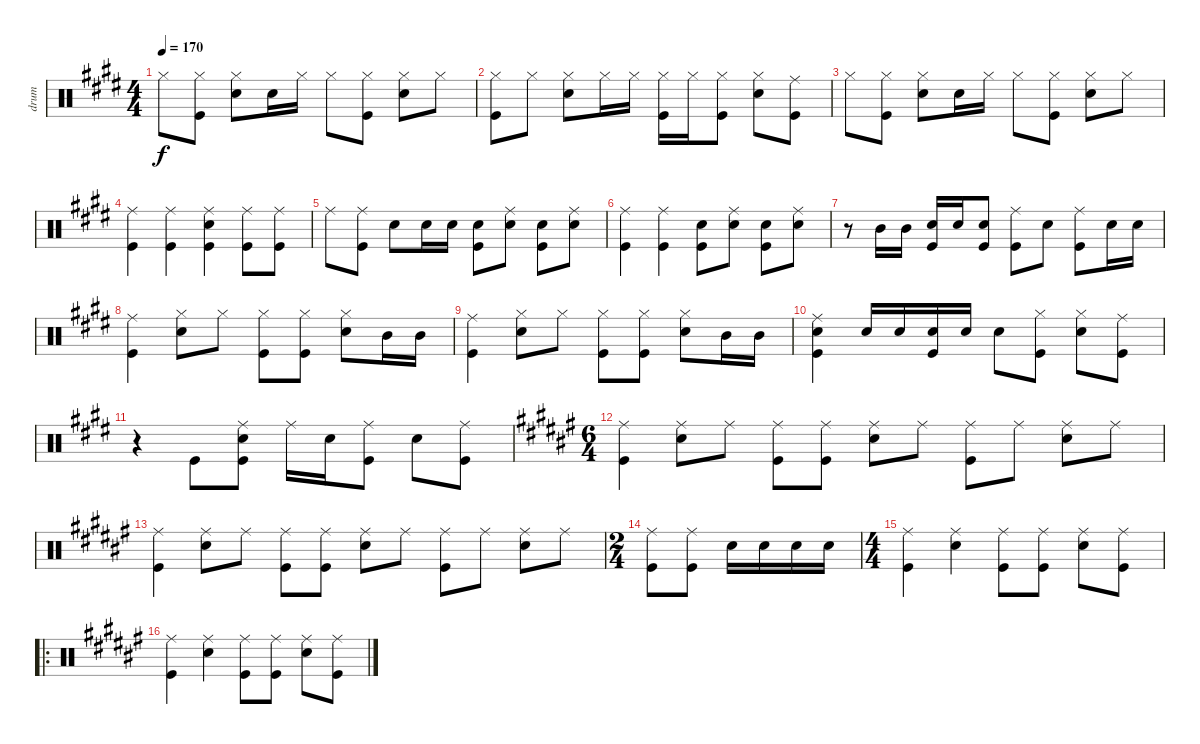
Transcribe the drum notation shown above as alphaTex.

\track ("drum" "drum") {instrument percussion}
\staff {score}
\articulation defaults
\ts (4 4)
\tempo 170
\clef neutral
\ks e "Hi-Hat (closed)".8{dy f}
("Kick (hit)" "Hi-Hat (closed)").8 ("Hi-Hat (closed)" "Snare (hit) 2").8 "Snare (hit) 2".16 "Hi-Hat (closed)".16 "Hi-Hat (closed)".8 ("Hi-Hat (closed)" "Kick (hit)").8 ("Hi-Hat (closed)" "Snare (hit) 2").8 "Hi-Hat (closed)".8 |
("Kick (hit)" "Hi-Hat (closed)").8 "Hi-Hat (closed)".8 ("Hi-Hat (closed)" "Snare (hit) 2").8 "Hi-Hat (closed)".16 "Hi-Hat (closed)".16 ("Hi-Hat (closed)" "Kick (hit)").16 "Hi-Hat (closed)".16 ("Kick (hit)" "Hi-Hat (closed)").8 ("Hi-Hat (closed)" "Snare (hit) 2").8 ("Kick (hit)" "Ride (middle)").8 |
"Hi-Hat (closed)".8 ("Kick (hit)" "Hi-Hat (closed)").8 ("Hi-Hat (closed)" "Snare (hit) 2").8 "Snare (hit) 2".16 "Hi-Hat (closed)".16 "Hi-Hat (closed)".8 ("Hi-Hat (closed)" "Kick (hit)").8 ("Hi-Hat (closed)" "Snare (hit) 2").8 "Hi-Hat (closed)".8 |
("Kick (hit)" "Ride (middle)").4 ("Kick (hit)" "Ride (middle)").4 ("Snare (hit) 2" "Kick (hit)" "Ride (middle)").4 ("Ride (middle)" "Kick (hit)").8 ("Ride (middle)" "Kick (hit)").8 |
"Ride (middle)".8 ("Kick (hit)" "Ride (middle)").8 "Snare (hit) 2".8 "Snare (hit) 2".16 "Snare (hit) 2".16 ("Kick (hit)" "Snare (hit) 2").8 ("Ride (middle)" "Snare (hit) 2").8 ("Kick (hit)" "Snare (hit) 2").8 ("Ride (middle)" "Snare (hit) 2").8 |
("Kick (hit)" "Ride (middle)").4 ("Kick (hit)" "Ride (middle)").4 ("Kick (hit)" "Snare (hit) 2").8 ("Ride (middle)" "Snare (hit) 2").8 ("Kick (hit)" "Snare (hit) 2").8 ("Ride (middle)" "Snare (hit) 2").8 |
r.8 "Mid Tom (hit)".16 "Mid Tom (hit)".16 ("Snare (hit) 2" "Kick (hit)").16 "Snare (hit) 2".16 ("Snare (hit) 2" "Kick (hit)").8 ("Ride (middle)" "Kick (hit)").8 "Snare (hit) 2".8 ("Ride (middle)" "Kick (hit)").8 "Snare (hit) 2".16 "Snare (hit) 2".16 |
("Ride (middle)" "Kick (hit)").4 ("Snare (hit) 2" "Hi-Hat (closed)").8 "Hi-Hat (closed)".8 ("Hi-Hat (closed)" "Kick (hit)").8 ("Hi-Hat (closed)" "Kick (hit)").8 ("Hi-Hat (closed)" "Snare (hit) 2").8 "Mid Tom (hit)".16 "Mid Tom (hit)".16 |
("Ride (middle)" "Kick (hit)").4 ("Snare (hit) 2" "Hi-Hat (closed)").8 "Hi-Hat (closed)".8 ("Hi-Hat (closed)" "Kick (hit)").8 ("Hi-Hat (closed)" "Kick (hit)").8 ("Hi-Hat (closed)" "Snare (hit) 2").8 "Mid Tom (hit)".16 "Mid Tom (hit)".16 |
("Ride (middle)" "Snare (hit) 2" "Kick (hit)").4 "Snare (hit) 2".16 "Snare (hit) 2".16 ("Snare (hit) 2" "Kick (hit)").16 "Snare (hit) 2".16 "Snare (hit) 2".8 ("Hi-Hat (closed)" "Kick (hit)").8 ("Hi-Hat (closed)" "Snare (hit) 2").8 ("Ride (middle)" "Kick (hit)").8 |
r.4 "Kick (hit)".8 ("Kick (hit)" "Snare (hit) 2" "Ride (middle)").8 "Ride (middle)".16 "Snare (hit) 2".16 ("Kick (hit)" "Ride (middle)").8 "Snare (hit) 2".8 ("Kick (hit)" "Ride (middle)").8 |
\ts (6 4)
\ks f#
("Kick (hit)" "Ride (middle)").4 ("Snare (hit) 2" "Ride (middle)").8 "Ride (middle)".8 ("Kick (hit)" "Ride (middle)").8 ("Kick (hit)" "Ride (middle)").8 ("Snare (hit) 2" "Ride (middle)").8 "Ride (middle)".8 ("Kick (hit)" "Ride (middle)").8 "Ride (middle)".8 ("Snare (hit) 2" "Ride (middle)").8 "Ride (middle)".8 |
("Kick (hit)" "Ride (middle)").4 ("Snare (hit) 2" "Ride (middle)").8 "Ride (middle)".8 ("Kick (hit)" "Ride (middle)").8 ("Kick (hit)" "Ride (middle)").8 ("Snare (hit) 2" "Ride (middle)").8 "Ride (middle)".8 ("Kick (hit)" "Ride (middle)").8 "Ride (middle)".8 ("Snare (hit) 2" "Ride (middle)").8 "Ride (middle)".8 |
\ts (2 4)
("Kick (hit)" "Ride (middle)").8 ("Kick (hit)" "Ride (middle)").8 "Snare (hit) 2".16 "Snare (hit) 2".16 "Snare (hit) 2".16 "Snare (hit) 2".16 |
\ts (4 4)
("Ride (middle)" "Kick (hit)").4 ("Ride (middle)" "Snare (hit) 2").4 ("Kick (hit)" "Ride (middle)").8 ("Kick (hit)" "Ride (middle)").8 ("Snare (hit) 2" "Ride (middle)").8 ("Kick (hit)" "Ride (middle)").8 |
\ro
("Ride (middle)" "Kick (hit)").4 ("Ride (middle)" "Snare (hit) 2").4 ("Kick (hit)" "Ride (middle)").8 ("Kick (hit)" "Ride (middle)").8 ("Snare (hit) 2" "Ride (middle)").8 ("Kick (hit)" "Ride (middle)").8
